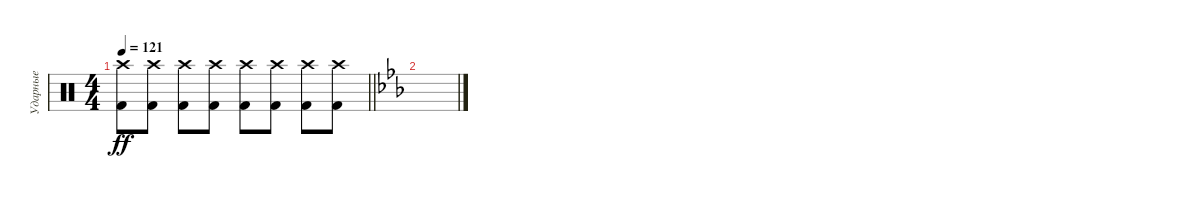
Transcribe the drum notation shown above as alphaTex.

\track ("Ударные" "Ударные") {instrument percussion}
\staff {score}
\articulation defaults
\ts (4 4)
\tempo 121
\clef neutral
\barLineRight lightlight
\ks c
("Crash high (hit)" "Kick (hit) 2").8{dy ff} ("Crash high (hit)" "Kick (hit) 2").8 ("Crash high (hit)" "Kick (hit) 2").8 ("Crash high (hit)" "Kick (hit) 2").8 ("Crash high (hit)" "Kick (hit) 2").8 ("Crash high (hit)" "Kick (hit) 2").8 ("Crash high (hit)" "Kick (hit) 2").8 ("Crash high (hit)" "Kick (hit) 2").8 |
\ks eb
